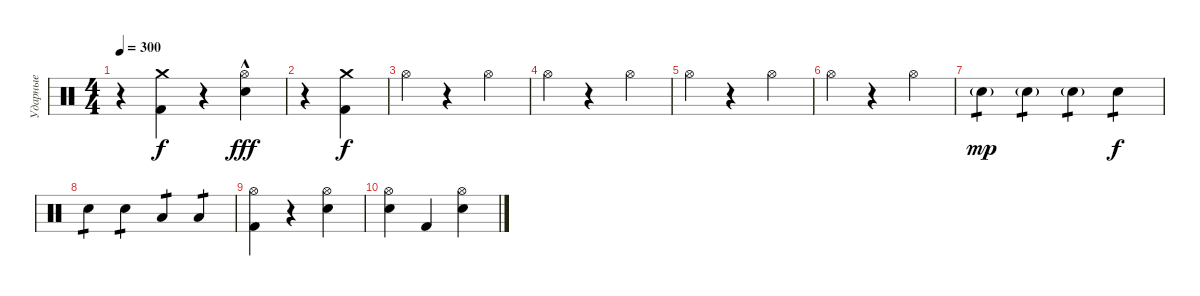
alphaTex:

\track ("Ударные" "Ударные") {instrument percussion}
\staff
\articulation defaults
\ts (4 4)
\tempo 300
\clef neutral
\ks c
r.4{dy f} ("Kick (hit) 2" "Crash medium (hit)").4 r.4 ("Electric Snare (hit)"{hac} "Hi-Hat (open)").4{dy fff} |
r.4 ("Kick (hit) 2" "Crash medium (hit)").4{dy f} |
"Hi-Hat (open)".4 r.4 "Hi-Hat (open)".4 |
"Hi-Hat (open)".4 r.4 "Hi-Hat (open)".4 |
"Hi-Hat (open)".4 r.4 "Hi-Hat (open)".4 |
"Hi-Hat (open)".4 r.4 "Hi-Hat (open)".4 |
"Electric Snare (hit)"{g}.4{tp 1 dy mp} "Electric Snare (hit)"{g}.4{tp 1} "Electric Snare (hit)"{g}.4{tp 1} "Electric Snare (hit)".4{tp 1 dy f} |
"Electric Snare (hit)".4{tp 1} "Electric Snare (hit)".4{tp 1} "Low Floor Tom (hit)".4{tp 1} "Low Tom (hit)".4{tp 1} |
("Hi-Hat (open)" "Kick (hit) 2").4 r.4 ("Electric Snare (hit)" "Hi-Hat (open)").4 |
("Snare (hit)" "Hi-Hat (open)").4 "Kick (hit) 2".4 ("Electric Snare (hit)" "Hi-Hat (open)").4
